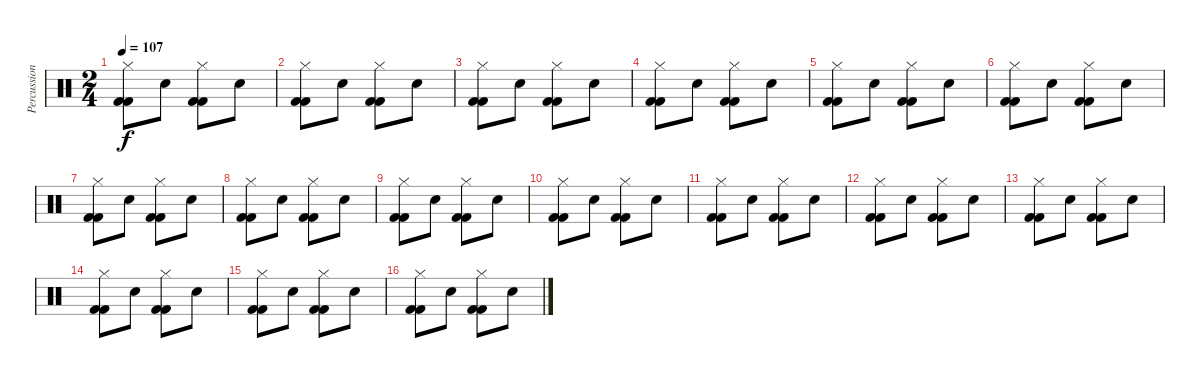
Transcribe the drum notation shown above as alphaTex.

\track ("Percussioni" "Percussion") {instrument percussion}
\staff {score}
\articulation defaults
\ts (2 4)
\tempo 107
\clef neutral
\ks c
("Hi-Hat (closed)" "Kick (hit) 2" "Kick (hit) 2").8{dy f} "Electric Snare (hit)".8 ("Hi-Hat (closed)" "Kick (hit) 2" "Kick (hit) 2").8 "Electric Snare (hit)".8 |
("Hi-Hat (closed)" "Kick (hit) 2" "Kick (hit) 2").8 "Electric Snare (hit)".8 ("Hi-Hat (closed)" "Kick (hit) 2" "Kick (hit) 2").8 "Electric Snare (hit)".8 |
("Hi-Hat (closed)" "Kick (hit) 2" "Kick (hit) 2").8 "Electric Snare (hit)".8 ("Hi-Hat (closed)" "Kick (hit) 2" "Kick (hit) 2").8 "Electric Snare (hit)".8 |
("Hi-Hat (closed)" "Kick (hit) 2" "Kick (hit) 2").8 "Electric Snare (hit)".8 ("Hi-Hat (closed)" "Kick (hit) 2" "Kick (hit) 2").8 "Electric Snare (hit)".8 |
("Hi-Hat (closed)" "Kick (hit) 2" "Kick (hit) 2").8 "Electric Snare (hit)".8 ("Hi-Hat (closed)" "Kick (hit) 2" "Kick (hit) 2").8 "Electric Snare (hit)".8 |
("Hi-Hat (closed)" "Kick (hit) 2" "Kick (hit) 2").8 "Electric Snare (hit)".8 ("Hi-Hat (closed)" "Kick (hit) 2" "Kick (hit) 2").8 "Electric Snare (hit)".8 |
("Hi-Hat (closed)" "Kick (hit) 2" "Kick (hit) 2").8 "Electric Snare (hit)".8 ("Hi-Hat (closed)" "Kick (hit) 2" "Kick (hit) 2").8 "Electric Snare (hit)".8 |
("Hi-Hat (closed)" "Kick (hit) 2" "Kick (hit) 2").8 "Electric Snare (hit)".8 ("Hi-Hat (closed)" "Kick (hit) 2" "Kick (hit) 2").8 "Electric Snare (hit)".8 |
("Hi-Hat (closed)" "Kick (hit) 2" "Kick (hit) 2").8 "Electric Snare (hit)".8 ("Hi-Hat (closed)" "Kick (hit) 2" "Kick (hit) 2").8 "Electric Snare (hit)".8 |
("Hi-Hat (closed)" "Kick (hit) 2" "Kick (hit) 2").8 "Electric Snare (hit)".8 ("Hi-Hat (closed)" "Kick (hit) 2" "Kick (hit) 2").8 "Electric Snare (hit)".8 |
("Hi-Hat (closed)" "Kick (hit) 2" "Kick (hit) 2").8 "Electric Snare (hit)".8 ("Hi-Hat (closed)" "Kick (hit) 2" "Kick (hit) 2").8 "Electric Snare (hit)".8 |
("Hi-Hat (closed)" "Kick (hit) 2" "Kick (hit) 2").8 "Electric Snare (hit)".8 ("Hi-Hat (closed)" "Kick (hit) 2" "Kick (hit) 2").8 "Electric Snare (hit)".8 |
("Hi-Hat (closed)" "Kick (hit) 2" "Kick (hit) 2").8 "Electric Snare (hit)".8 ("Hi-Hat (closed)" "Kick (hit) 2" "Kick (hit) 2").8 "Electric Snare (hit)".8 |
("Hi-Hat (closed)" "Kick (hit) 2" "Kick (hit) 2").8 "Electric Snare (hit)".8 ("Hi-Hat (closed)" "Kick (hit) 2" "Kick (hit) 2").8 "Electric Snare (hit)".8 |
("Hi-Hat (closed)" "Kick (hit) 2" "Kick (hit) 2").8 "Electric Snare (hit)".8 ("Hi-Hat (closed)" "Kick (hit) 2" "Kick (hit) 2").8 "Electric Snare (hit)".8 |
("Hi-Hat (closed)" "Kick (hit) 2" "Kick (hit) 2").8 "Electric Snare (hit)".8 ("Hi-Hat (closed)" "Kick (hit) 2" "Kick (hit) 2").8 "Electric Snare (hit)".8
